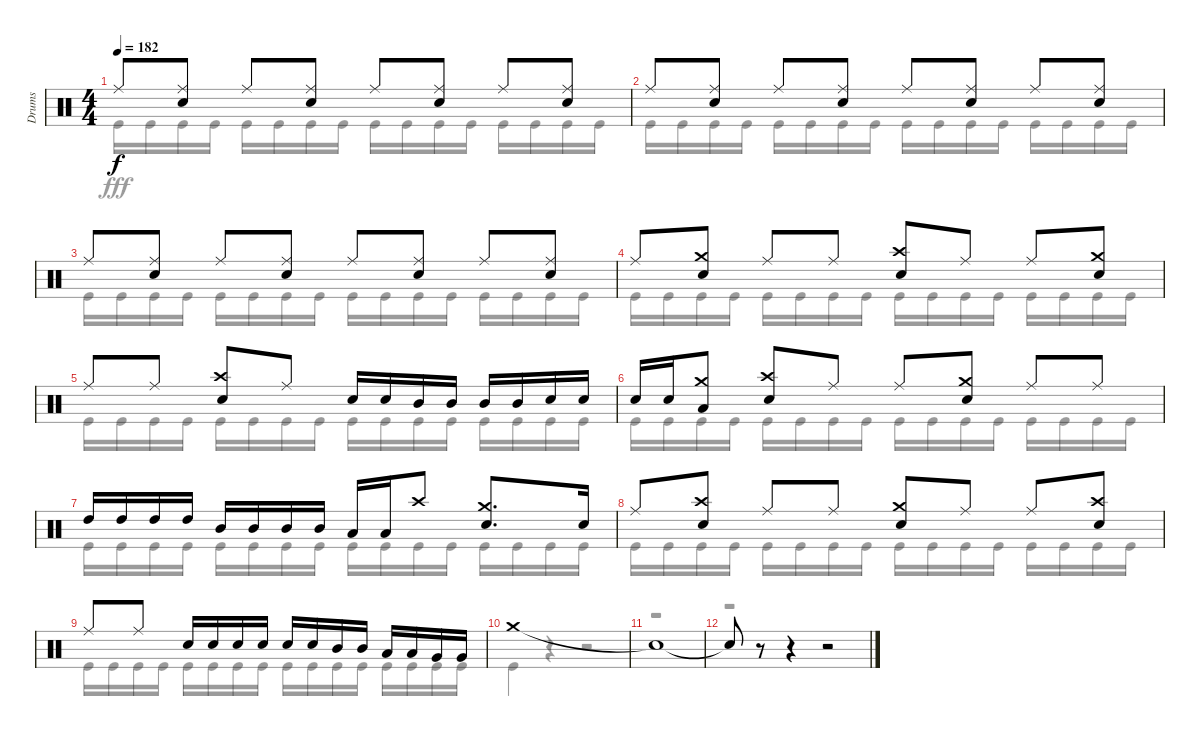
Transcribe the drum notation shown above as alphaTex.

\track ("Drums" "Drums") {instrument percussion}
\staff {score}
\articulation defaults
\voice
\ts (4 4)
\tempo 182
\clef neutral
\ks c "Ride (middle)".8{dy f}
("Ride (middle)" "Snare (hit) 2").8 "Ride (middle)".8 ("Ride (middle)" "Snare (hit) 2").8 "Ride (middle)".8 ("Ride (middle)" "Snare (hit) 2").8 "Ride (middle)".8 ("Ride (middle)" "Snare (hit) 2").8 |
"Ride (middle)".8 ("Ride (middle)" "Snare (hit) 2").8 "Ride (middle)".8 ("Ride (middle)" "Snare (hit) 2").8 "Ride (middle)".8 ("Ride (middle)" "Snare (hit) 2").8 "Ride (middle)".8 ("Ride (middle)" "Snare (hit) 2").8 |
"Ride (middle)".8 ("Ride (middle)" "Snare (hit) 2").8 "Ride (middle)".8 ("Ride (middle)" "Snare (hit) 2").8 "Ride (middle)".8 ("Ride (middle)" "Snare (hit) 2").8 "Ride (middle)".8 ("Ride (middle)" "Snare (hit) 2").8 |
"Ride (middle)".8 ("Crash medium (hit)" "Snare (hit) 2").8 "Ride (middle)".8 "Ride (middle)".8 ("Crash high (hit)" "Snare (hit) 2").8 "Ride (middle)".8 "Ride (middle)".8 ("Crash medium (hit)" "Snare (hit) 2").8 |
"Ride (middle)".8 "Ride (middle)".8 ("Crash high (hit)" "Snare (hit) 2").8 "Ride (middle)".8 "Snare (hit) 2".16 "Snare (hit) 2".16 "Mid Tom (hit)".16 "Mid Tom (hit)".16 "Mid Tom (hit)".16 "Mid Tom (hit)".16 "Snare (hit) 2".16 "Snare (hit) 2".16 |
"Snare (hit) 2".16 "Snare (hit) 2".16 ("Crash medium (hit)" "Low Tom (hit)").8 ("Crash high (hit)" "Snare (hit) 2").8 "Ride (middle)".8 "Ride (middle)".8 ("Crash medium (hit)" "Snare (hit) 2").8 "Ride (middle)".8 "Ride (middle)".8 |
"High Tom (hit)".16 "High Tom (hit)".16 "High Tom (hit)".16 "High Tom (hit)".16 "Mid Tom (hit)".16 "Mid Tom (hit)".16 "Mid Tom (hit)".16 "Mid Tom (hit)".16 "Low Tom (hit)".16 "Low Tom (hit)".16 "Crash high (hit)".8 ("Crash medium (hit)" "Snare (hit) 2").8{d} "Snare (hit) 2".16 |
"Ride (middle)".8 ("Crash high (hit)" "Snare (hit) 2").8 "Ride (middle)".8 "Ride (middle)".8 ("Crash medium (hit)" "Snare (hit) 2").8 "Ride (middle)".8 "Ride (middle)".8 ("Crash high (hit)" "Snare (hit) 2").8 |
"Ride (middle)".8 "Ride (middle)".8 "Snare (hit) 2".16 "Snare (hit) 2".16 "Snare (hit) 2".16 "Snare (hit) 2".16 "Snare (hit) 2".16 "Snare (hit) 2".16 "Mid Tom (hit)".16 "Mid Tom (hit)".16 "Low Tom (hit)".16 "Low Tom (hit)".16 "Very Low Tom (hit)".16 "Very Low Tom (hit)".16 |
"Crash medium (hit)".1 |
"Snare (hit)"{t}.1 |
"Snare (hit)"{t}.8 r.8 r.4 r.2
\voice
\clef neutral
\ottava regular
\simile none
\ks c "Kick (hit)".16{dy fff} "Kick (hit)".16 "Kick (hit)".16 "Kick (hit)".16 "Kick (hit)".16 "Kick (hit)".16 "Kick (hit)".16 "Kick (hit)".16 "Kick (hit)".16 "Kick (hit)".16 "Kick (hit)".16 "Kick (hit)".16 "Kick (hit)".16 "Kick (hit)".16 "Kick (hit)".16 "Kick (hit)".16
|
"Kick (hit)".16 "Kick (hit)".16 "Kick (hit)".16 "Kick (hit)".16 "Kick (hit)".16 "Kick (hit)".16 "Kick (hit)".16 "Kick (hit)".16 "Kick (hit)".16 "Kick (hit)".16 "Kick (hit)".16 "Kick (hit)".16 "Kick (hit)".16 "Kick (hit)".16 "Kick (hit)".16 "Kick (hit)".16 |
"Kick (hit)".16 "Kick (hit)".16 "Kick (hit)".16 "Kick (hit)".16 "Kick (hit)".16 "Kick (hit)".16 "Kick (hit)".16 "Kick (hit)".16 "Kick (hit)".16 "Kick (hit)".16 "Kick (hit)".16 "Kick (hit)".16 "Kick (hit)".16 "Kick (hit)".16 "Kick (hit)".16 "Kick (hit)".16 |
"Kick (hit)".16 "Kick (hit)".16 "Kick (hit)".16 "Kick (hit)".16 "Kick (hit)".16 "Kick (hit)".16 "Kick (hit)".16 "Kick (hit)".16 "Kick (hit)".16 "Kick (hit)".16 "Kick (hit)".16 "Kick (hit)".16 "Kick (hit)".16 "Kick (hit)".16 "Kick (hit)".16 "Kick (hit)".16 |
"Kick (hit)".16 "Kick (hit)".16 "Kick (hit)".16 "Kick (hit)".16 "Kick (hit)".16 "Kick (hit)".16 "Kick (hit)".16 "Kick (hit)".16 "Kick (hit)".16 "Kick (hit)".16 "Kick (hit)".16 "Kick (hit)".16 "Kick (hit)".16 "Kick (hit)".16 "Kick (hit)".16 "Kick (hit)".16 |
"Kick (hit)".16 "Kick (hit)".16 "Kick (hit)".16 "Kick (hit)".16 "Kick (hit)".16 "Kick (hit)".16 "Kick (hit)".16 "Kick (hit)".16 "Kick (hit)".16 "Kick (hit)".16 "Kick (hit)".16 "Kick (hit)".16 "Kick (hit)".16 "Kick (hit)".16 "Kick (hit)".16 "Kick (hit)".16 |
"Kick (hit)".16 "Kick (hit)".16 "Kick (hit)".16 "Kick (hit)".16 "Kick (hit)".16 "Kick (hit)".16 "Kick (hit)".16 "Kick (hit)".16 "Kick (hit)".16 "Kick (hit)".16 "Kick (hit)".16 "Kick (hit)".16 "Kick (hit)".16 "Kick (hit)".16 "Kick (hit)".16 "Kick (hit)".16 |
"Kick (hit)".16 "Kick (hit)".16 "Kick (hit)".16 "Kick (hit)".16 "Kick (hit)".16 "Kick (hit)".16 "Kick (hit)".16 "Kick (hit)".16 "Kick (hit)".16 "Kick (hit)".16 "Kick (hit)".16 "Kick (hit)".16 "Kick (hit)".16 "Kick (hit)".16 "Kick (hit)".16 "Kick (hit)".16 |
"Kick (hit)".16 "Kick (hit)".16 "Kick (hit)".16 "Kick (hit)".16 "Kick (hit)".16 "Kick (hit)".16 "Kick (hit)".16 "Kick (hit)".16 "Kick (hit)".16 "Kick (hit)".16 "Kick (hit)".16 "Kick (hit)".16 "Kick (hit)".16 "Kick (hit)".16 "Kick (hit)".16 "Kick (hit)".16 |
"Kick (hit)".4 r.4 r.2 |
r.1 |
r.1
